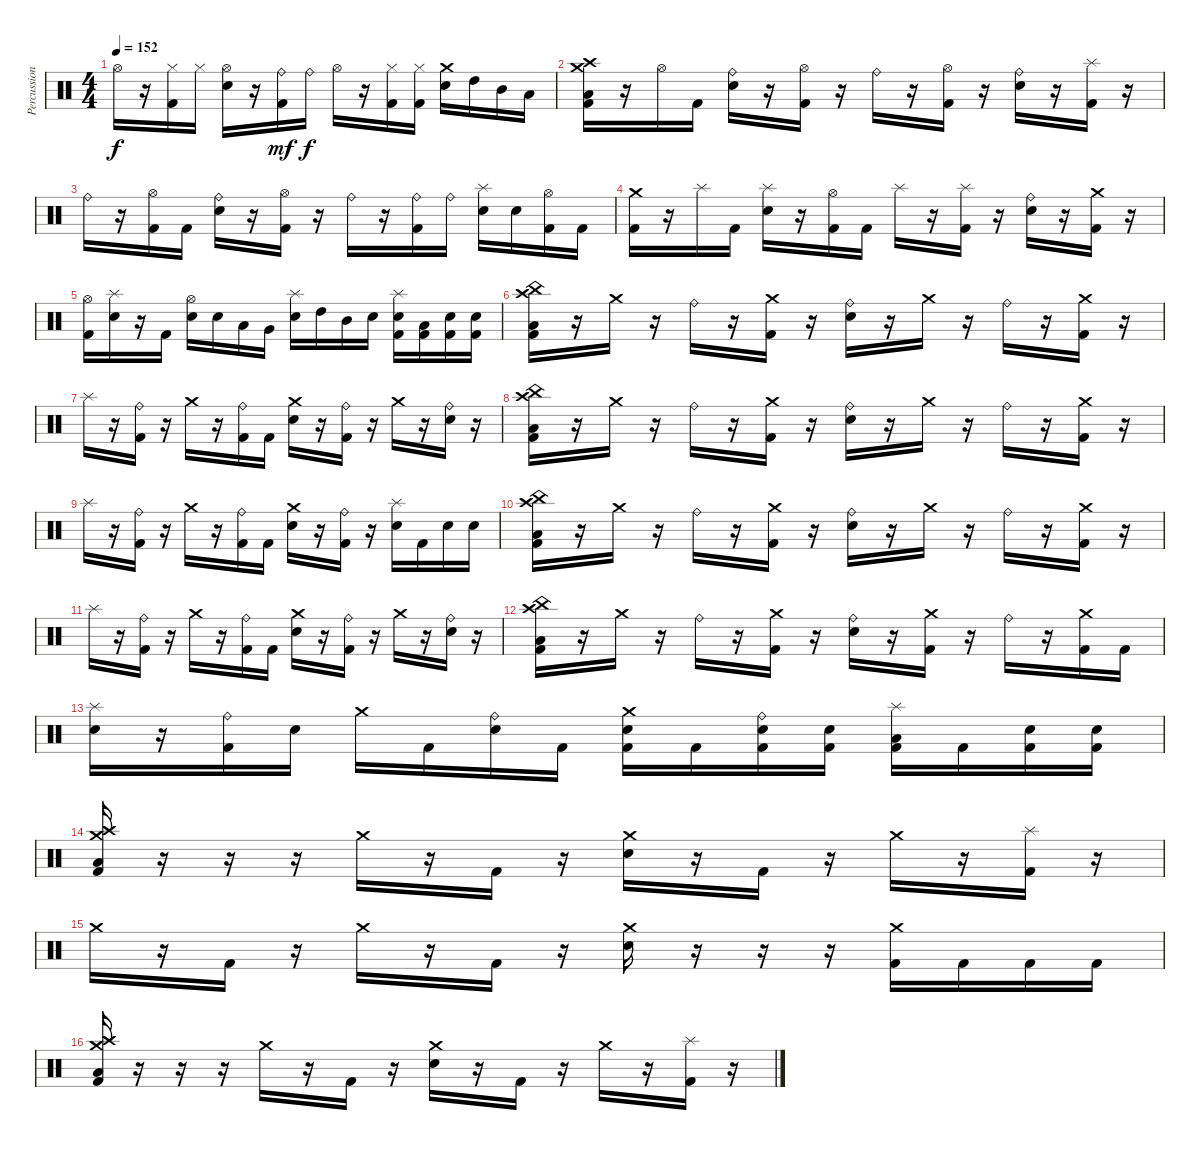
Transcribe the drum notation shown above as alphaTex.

\track ("Percussion" "Percussion") {instrument percussion}
\staff {score}
\articulation defaults
\ts (4 4)
\tempo 152
\clef neutral
\ks c "Hi-Hat (open)".16{dy f}
r.16 ("Hi-Hat (closed)" "Kick (hit) 2").16 "Hi-Hat (closed)".16 ("Hi-Hat (open)" "Electric Snare (hit)").16 r.16 ("Ride (bell)" "Kick (hit) 2").16{dy mf} "Ride (bell)".16{dy f} "Hi-Hat (open)".16 r.16 ("Hi-Hat (closed)" "Kick (hit) 2").16 ("Hi-Hat (closed)" "Kick (hit) 2").16 ("Crash medium (hit)" "Electric Snare (hit)").16 "High Tom (hit)".16 "Mid Tom (hit)".16 "Low Tom (hit)".16 |
("Crash high (hit)" "Crash medium (hit)" "Low Floor Tom (hit)" "Kick (hit) 2").16 r.16 "Hi-Hat (open)".16 "Kick (hit) 2".16 ("Ride (bell)" "Electric Snare (hit)").16 r.16 ("Hi-Hat (open)" "Kick (hit) 2").16 r.16 "Ride (bell)".16 r.16 ("Hi-Hat (open)" "Kick (hit) 2").16 r.16 ("Ride (bell)" "Electric Snare (hit)").16 r.16 ("Splash (hit)" "Kick (hit) 2").16 r.16 |
"Ride (bell)".16 r.16 ("Hi-Hat (open)" "Kick (hit) 2").16 "Kick (hit) 2".16 ("Ride (bell)" "Electric Snare (hit)").16 r.16 ("Hi-Hat (open)" "Kick (hit) 2").16 r.16 "Ride (bell)".16 r.16 ("Ride (bell)" "Kick (hit) 2").16 "Ride (bell)".16 ("Splash (hit)" "Electric Snare (hit)").16 "Electric Snare (hit)".16 ("Hi-Hat (open)" "Kick (hit) 2").16 "Kick (hit) 2".16 |
("Crash medium (hit)" "Kick (hit) 2").16 r.16 "Splash (hit)".16 "Kick (hit) 2".16 ("Splash (hit)" "Electric Snare (hit)").16 r.16 ("Hi-Hat (open)" "Kick (hit) 2").16 "Kick (hit) 2".16 "Splash (hit)".16 r.16 ("Splash (hit)" "Kick (hit) 2").16 r.16 ("Ride (bell)" "Electric Snare (hit)").16 r.16 ("Crash medium (hit)" "Kick (hit) 2").16 r.16 |
("Hi-Hat (open)" "Kick (hit) 2").16 ("Splash (hit)" "Electric Snare (hit)").16 r.16 "Kick (hit) 2".16 ("Hi-Hat (open)" "Electric Snare (hit)").16 "Electric Snare (hit)".16 "Low Tom (hit)".16 "Very Low Tom (hit)".16 ("Splash (hit)" "Electric Snare (hit)").16 "High Tom (hit)".16 "Mid Tom (hit)".16 "Electric Snare (hit)".16 ("Splash (hit)" "Electric Snare (hit)" "Kick (hit) 2").16 ("Low Floor Tom (hit)" "Kick (hit) 2").16 ("Electric Snare (hit)" "Kick (hit) 2").16 ("Electric Snare (hit)" "Kick (hit) 2").16 |
("China (hit)" "Crash high (hit)" "Low Floor Tom (hit)" "Kick (hit) 2").16 r.16 "Crash medium (hit)".16 r.16 "Ride (bell)".16 r.16 ("Crash medium (hit)" "Kick (hit) 2").16 r.16 ("Ride (bell)" "Electric Snare (hit)").16 r.16 "Crash medium (hit)".16 r.16 "Ride (bell)".16 r.16 ("Crash medium (hit)" "Kick (hit) 2").16 r.16 |
"Splash (hit)".16 r.16 ("Ride (bell)" "Kick (hit) 2").16 r.16 "Crash medium (hit)".16 r.16 ("Ride (bell)" "Kick (hit) 2").16 "Kick (hit) 2".16 ("Crash medium (hit)" "Electric Snare (hit)").16 r.16 ("Ride (bell)" "Kick (hit) 2").16 r.16 "Crash medium (hit)".16 r.16 ("Ride (bell)" "Electric Snare (hit)").16 r.16 |
("China (hit)" "Crash high (hit)" "Low Floor Tom (hit)" "Kick (hit) 2").16 r.16 "Crash medium (hit)".16 r.16 "Ride (bell)".16 r.16 ("Crash medium (hit)" "Kick (hit) 2").16 r.16 ("Ride (bell)" "Electric Snare (hit)").16 r.16 "Crash medium (hit)".16 r.16 "Ride (bell)".16 r.16 ("Crash medium (hit)" "Kick (hit) 2").16 r.16 |
"Splash (hit)".16 r.16 ("Ride (bell)" "Kick (hit) 2").16 r.16 "Crash medium (hit)".16 r.16 ("Ride (bell)" "Kick (hit) 2").16 "Kick (hit) 2".16 ("Crash medium (hit)" "Electric Snare (hit)").16 r.16 ("Ride (bell)" "Kick (hit) 2").16 r.16 ("Splash (hit)" "Electric Snare (hit)").16 "Kick (hit) 2".16 "Electric Snare (hit)".16 "Electric Snare (hit)".16 |
("China (hit)" "Crash high (hit)" "Low Floor Tom (hit)" "Kick (hit) 2").16 r.16 "Crash medium (hit)".16 r.16 "Ride (bell)".16 r.16 ("Crash medium (hit)" "Kick (hit) 2").16 r.16 ("Ride (bell)" "Electric Snare (hit)").16 r.16 "Crash medium (hit)".16 r.16 "Ride (bell)".16 r.16 ("Crash medium (hit)" "Kick (hit) 2").16 r.16 |
"Splash (hit)".16 r.16 ("Ride (bell)" "Kick (hit) 2").16 r.16 "Crash medium (hit)".16 r.16 ("Ride (bell)" "Kick (hit) 2").16 "Kick (hit) 2".16 ("Crash medium (hit)" "Electric Snare (hit)").16 r.16 ("Ride (bell)" "Kick (hit) 2").16 r.16 "Crash medium (hit)".16 r.16 ("Ride (bell)" "Electric Snare (hit)").16 r.16 |
("China (hit)" "Crash high (hit)" "Low Floor Tom (hit)" "Kick (hit) 2").16 r.16 "Crash medium (hit)".16 r.16 "Ride (bell)".16 r.16 ("Crash medium (hit)" "Kick (hit) 2").16 r.16 ("Ride (bell)" "Electric Snare (hit)").16 r.16 ("Crash medium (hit)" "Kick (hit) 2").16 r.16 "Ride (bell)".16 r.16 ("Crash medium (hit)" "Kick (hit) 2").16 "Kick (hit) 2".16 |
("Splash (hit)" "Electric Snare (hit)").16 r.16 ("Ride (bell)" "Kick (hit) 2").16 "Electric Snare (hit)".16 "Crash medium (hit)".16 "Kick (hit) 2".16 ("Ride (bell)" "Electric Snare (hit)").16 "Kick (hit) 2".16 ("Crash medium (hit)" "Electric Snare (hit)" "Kick (hit) 2").16 "Kick (hit) 2".16 ("Ride (bell)" "Electric Snare (hit)" "Kick (hit) 2").16 ("Electric Snare (hit)" "Kick (hit) 2").16 ("Splash (hit)" "Low Tom (hit)" "Kick (hit) 2").16 "Kick (hit) 2".16 ("Electric Snare (hit)" "Kick (hit) 2").16 ("Electric Snare (hit)" "Kick (hit) 2").16 |
("Crash high (hit)" "Crash medium (hit)" "Low Floor Tom (hit)" "Kick (hit) 2").16 r.16 r.16 r.16 "Crash medium (hit)".16 r.16 "Kick (hit) 2".16 r.16 ("Crash medium (hit)" "Electric Snare (hit)").16 r.16 "Kick (hit) 2".16 r.16 "Crash medium (hit)".16 r.16 ("Splash (hit)" "Kick (hit) 2").16 r.16 |
"Crash medium (hit)".16 r.16 "Kick (hit) 2".16 r.16 "Crash medium (hit)".16 r.16 "Kick (hit) 2".16 r.16 ("Crash medium (hit)" "Electric Snare (hit)").16 r.16 r.16 r.16 ("Crash medium (hit)" "Kick (hit) 2").16 "Kick (hit) 2".16 "Kick (hit) 2".16 "Kick (hit) 2".16 |
("Crash medium (hit)" "Crash high (hit)" "Low Floor Tom (hit)" "Kick (hit) 2").16 r.16 r.16 r.16 "Crash medium (hit)".16 r.16 "Kick (hit) 2".16 r.16 ("Crash medium (hit)" "Electric Snare (hit)").16 r.16 "Kick (hit) 2".16 r.16 "Crash medium (hit)".16 r.16 ("Splash (hit)" "Kick (hit) 2").16 r.16
